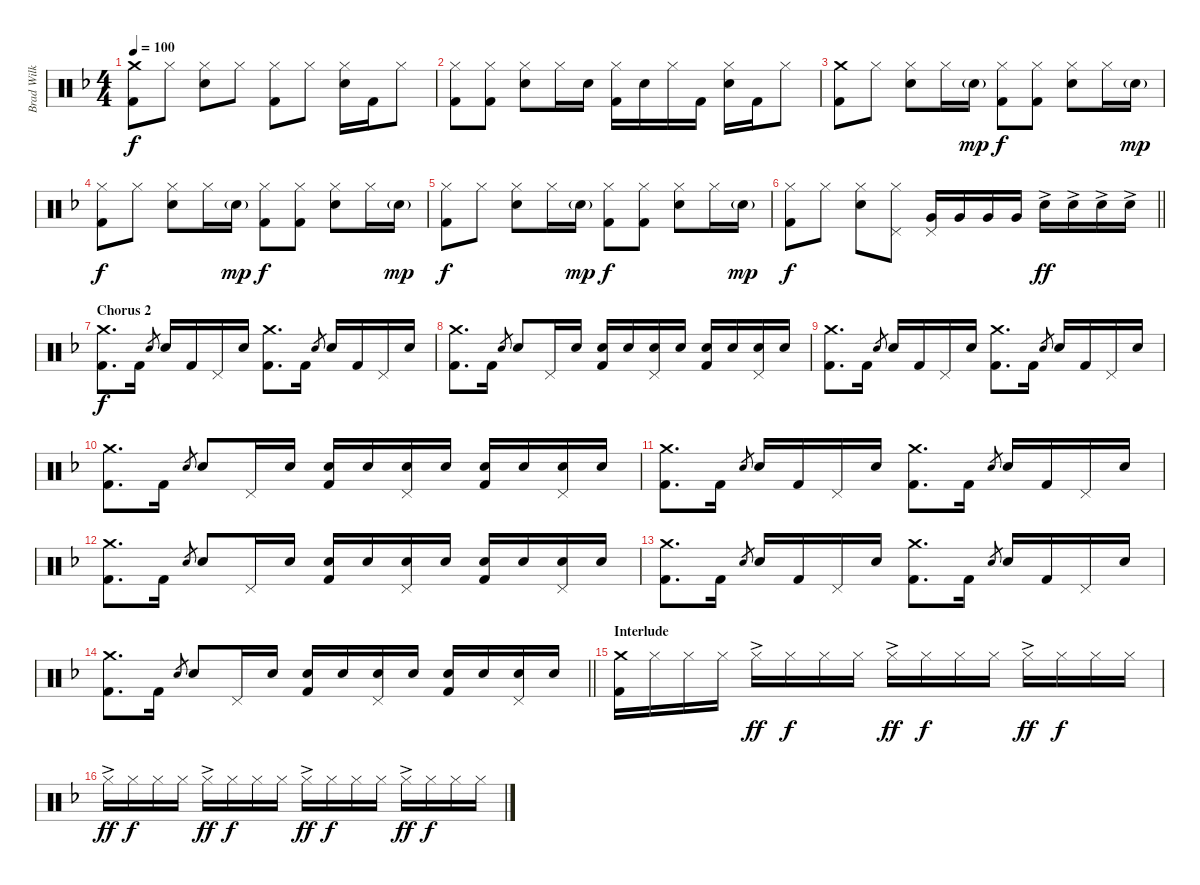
\track ("Brad Wilk" "Brad Wilk") {instrument percussion}
\staff {score}
\articulation defaults
\ts (4 4)
\tempo 100
\clef neutral
\ks f
("Crash medium (hit)" "Kick (hit) 2").8{dy f} "Hi-Hat (closed)".8 ("Hi-Hat (closed)" "Electric Snare (hit)").8 "Hi-Hat (closed)".8 ("Hi-Hat (closed)" "Kick (hit) 2").8 "Hi-Hat (closed)".8 ("Hi-Hat (closed)" "Electric Snare (hit)").16 "Kick (hit) 2".16 "Hi-Hat (closed)".8 |
("Hi-Hat (closed)" "Kick (hit) 2").8 ("Hi-Hat (closed)" "Kick (hit) 2").8 ("Hi-Hat (closed)" "Electric Snare (hit)").8 "Hi-Hat (closed)".16 "Electric Snare (hit)".16 ("Hi-Hat (closed)" "Kick (hit) 2").16 "Electric Snare (hit)".16 "Hi-Hat (closed)".16 "Kick (hit) 2".16 ("Hi-Hat (closed)" "Electric Snare (hit)").16 "Kick (hit) 2".16 "Hi-Hat (closed)".8 |
("Crash medium (hit)" "Kick (hit) 2").8 "Hi-Hat (closed)".8 ("Hi-Hat (closed)" "Electric Snare (hit)").8 "Hi-Hat (closed)".16 "Electric Snare (hit)"{g}.16{dy mp} ("Hi-Hat (closed)" "Kick (hit) 2").8{dy f} ("Hi-Hat (closed)" "Kick (hit) 2").8 ("Hi-Hat (closed)" "Electric Snare (hit)").8 "Hi-Hat (closed)".16 "Electric Snare (hit)"{g}.16{dy mp} |
("Hi-Hat (closed)" "Kick (hit) 2").8{dy f} "Hi-Hat (closed)".8 ("Hi-Hat (closed)" "Electric Snare (hit)").8 "Hi-Hat (closed)".16 "Electric Snare (hit)"{g}.16{dy mp} ("Hi-Hat (closed)" "Kick (hit) 2").8{dy f} ("Hi-Hat (closed)" "Kick (hit) 2").8 ("Hi-Hat (closed)" "Electric Snare (hit)").8 "Hi-Hat (closed)".16 "Electric Snare (hit)"{g}.16{dy mp} |
("Hi-Hat (closed)" "Kick (hit) 2").8{dy f} "Hi-Hat (closed)".8 ("Hi-Hat (closed)" "Electric Snare (hit)").8 "Hi-Hat (closed)".16 "Electric Snare (hit)"{g}.16{dy mp} ("Hi-Hat (closed)" "Kick (hit) 2").8{dy f} ("Hi-Hat (closed)" "Kick (hit) 2").8 ("Hi-Hat (closed)" "Electric Snare (hit)").8 "Hi-Hat (closed)".16 "Electric Snare (hit)"{g}.16{dy mp} |
\barLineRight lightlight
("Hi-Hat (closed)" "Kick (hit) 2").8{dy f} "Hi-Hat (closed)".8 ("Hi-Hat (closed)" "Electric Snare (hit)").8 ("Hi-Hat (closed)" "Pedal Hi-Hat (hit)").8 ("Pedal Hi-Hat (hit)" "Very Low Tom (hit)").16 "Very Low Tom (hit)".16 "Very Low Tom (hit)".16 "Very Low Tom (hit)".16 "Electric Snare (hit)"{ac}.16{dy ff} "Electric Snare (hit)"{ac}.16 "Electric Snare (hit)"{ac}.16 "Electric Snare (hit)"{ac}.16 |
\section ("" "Chorus 2")
("Crash medium (hit)" "Kick (hit) 2").8{d dy f} "Kick (hit) 2".16 "Electric Snare (hit)".8{gr} "Electric Snare (hit)".16 "Kick (hit) 2".16 "Pedal Hi-Hat (hit)".16 "Electric Snare (hit)".16 ("Crash medium (hit)" "Kick (hit) 2").8{d} "Kick (hit) 2".16 "Electric Snare (hit)".8{gr} "Electric Snare (hit)".16 "Kick (hit) 2".16 "Pedal Hi-Hat (hit)".16 "Electric Snare (hit)".16 |
("Crash medium (hit)" "Kick (hit) 2").8{d} "Kick (hit) 2".16 "Electric Snare (hit)".8{gr} "Electric Snare (hit)".8 "Pedal Hi-Hat (hit)".16 "Electric Snare (hit)".16 ("Electric Snare (hit)" "Kick (hit) 2").16 "Electric Snare (hit)".16 ("Pedal Hi-Hat (hit)" "Electric Snare (hit)").16 "Electric Snare (hit)".16 ("Electric Snare (hit)" "Kick (hit) 2").16 "Electric Snare (hit)".16 ("Pedal Hi-Hat (hit)" "Electric Snare (hit)").16 "Electric Snare (hit)".16 |
("Crash medium (hit)" "Kick (hit) 2").8{d} "Kick (hit) 2".16 "Electric Snare (hit)".8{gr} "Electric Snare (hit)".16 "Kick (hit) 2".16 "Pedal Hi-Hat (hit)".16 "Electric Snare (hit)".16 ("Crash medium (hit)" "Kick (hit) 2").8{d} "Kick (hit) 2".16 "Electric Snare (hit)".8{gr} "Electric Snare (hit)".16 "Kick (hit) 2".16 "Pedal Hi-Hat (hit)".16 "Electric Snare (hit)".16 |
("Crash medium (hit)" "Kick (hit) 2").8{d} "Kick (hit) 2".16 "Electric Snare (hit)".8{gr} "Electric Snare (hit)".8 "Pedal Hi-Hat (hit)".16 "Electric Snare (hit)".16 ("Electric Snare (hit)" "Kick (hit) 2").16 "Electric Snare (hit)".16 ("Pedal Hi-Hat (hit)" "Electric Snare (hit)").16 "Electric Snare (hit)".16 ("Electric Snare (hit)" "Kick (hit) 2").16 "Electric Snare (hit)".16 ("Pedal Hi-Hat (hit)" "Electric Snare (hit)").16 "Electric Snare (hit)".16 |
("Crash medium (hit)" "Kick (hit) 2").8{d} "Kick (hit) 2".16 "Electric Snare (hit)".8{gr} "Electric Snare (hit)".16 "Kick (hit) 2".16 "Pedal Hi-Hat (hit)".16 "Electric Snare (hit)".16 ("Crash medium (hit)" "Kick (hit) 2").8{d} "Kick (hit) 2".16 "Electric Snare (hit)".8{gr} "Electric Snare (hit)".16 "Kick (hit) 2".16 "Pedal Hi-Hat (hit)".16 "Electric Snare (hit)".16 |
("Crash medium (hit)" "Kick (hit) 2").8{d} "Kick (hit) 2".16 "Electric Snare (hit)".8{gr} "Electric Snare (hit)".8 "Pedal Hi-Hat (hit)".16 "Electric Snare (hit)".16 ("Electric Snare (hit)" "Kick (hit) 2").16 "Electric Snare (hit)".16 ("Pedal Hi-Hat (hit)" "Electric Snare (hit)").16 "Electric Snare (hit)".16 ("Electric Snare (hit)" "Kick (hit) 2").16 "Electric Snare (hit)".16 ("Pedal Hi-Hat (hit)" "Electric Snare (hit)").16 "Electric Snare (hit)".16 |
("Crash medium (hit)" "Kick (hit) 2").8{d} "Kick (hit) 2".16 "Electric Snare (hit)".8{gr} "Electric Snare (hit)".16 "Kick (hit) 2".16 "Pedal Hi-Hat (hit)".16 "Electric Snare (hit)".16 ("Crash medium (hit)" "Kick (hit) 2").8{d} "Kick (hit) 2".16 "Electric Snare (hit)".8{gr} "Electric Snare (hit)".16 "Kick (hit) 2".16 "Pedal Hi-Hat (hit)".16 "Electric Snare (hit)".16 |
\barLineRight lightlight
("Crash medium (hit)" "Kick (hit) 2").8{d} "Kick (hit) 2".16 "Electric Snare (hit)".8{gr} "Electric Snare (hit)".8 "Pedal Hi-Hat (hit)".16 "Electric Snare (hit)".16 ("Electric Snare (hit)" "Kick (hit) 2").16 "Electric Snare (hit)".16 ("Pedal Hi-Hat (hit)" "Electric Snare (hit)").16 "Electric Snare (hit)".16 ("Electric Snare (hit)" "Kick (hit) 2").16 "Electric Snare (hit)".16 ("Pedal Hi-Hat (hit)" "Electric Snare (hit)").16 "Electric Snare (hit)".16 |
\section ("" "Interlude")
("Crash medium (hit)" "Kick (hit) 2").16 "Hi-Hat (closed)".16 "Hi-Hat (closed)".16 "Hi-Hat (closed)".16 "Hi-Hat (closed)"{ac}.16{dy ff} "Hi-Hat (closed)".16{dy f} "Hi-Hat (closed)".16 "Hi-Hat (closed)".16 "Hi-Hat (closed)"{ac}.16{dy ff} "Hi-Hat (closed)".16{dy f} "Hi-Hat (closed)".16 "Hi-Hat (closed)".16 "Hi-Hat (closed)"{ac}.16{dy ff} "Hi-Hat (closed)".16{dy f} "Hi-Hat (closed)".16 "Hi-Hat (closed)".16 |
"Hi-Hat (closed)"{ac}.16{dy ff} "Hi-Hat (closed)".16{dy f} "Hi-Hat (closed)".16 "Hi-Hat (closed)".16 "Hi-Hat (closed)"{ac}.16{dy ff} "Hi-Hat (closed)".16{dy f} "Hi-Hat (closed)".16 "Hi-Hat (closed)".16 "Hi-Hat (closed)"{ac}.16{dy ff} "Hi-Hat (closed)".16{dy f} "Hi-Hat (closed)".16 "Hi-Hat (closed)".16 "Hi-Hat (closed)"{ac}.16{dy ff} "Hi-Hat (closed)".16{dy f} "Hi-Hat (closed)".16 "Hi-Hat (closed)".16
